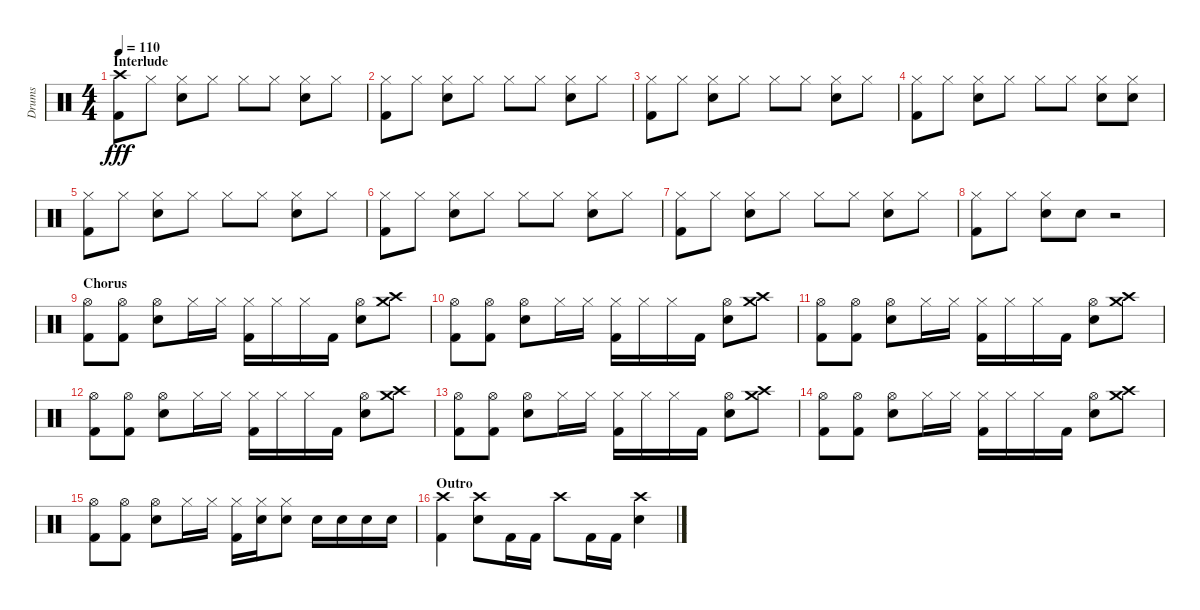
\track ("Drums" "Drums") {instrument percussion}
\staff {score}
\articulation defaults
\ts (4 4)
\section ("" "Interlude")
\tempo 110
\clef neutral
\ks c
("Crash high (hit)" "Kick (hit) 2").8{dy fff} "Hi-Hat (closed)".8 ("Hi-Hat (closed)" "Electric Snare (hit)").8 "Hi-Hat (closed)".8 "Hi-Hat (closed)".8 "Hi-Hat (closed)".8 ("Hi-Hat (closed)" "Electric Snare (hit)").8 "Hi-Hat (closed)".8 |
("Hi-Hat (closed)" "Kick (hit) 2").8 "Hi-Hat (closed)".8 ("Hi-Hat (closed)" "Electric Snare (hit)").8 "Hi-Hat (closed)".8 "Hi-Hat (closed)".8 "Hi-Hat (closed)".8 ("Hi-Hat (closed)" "Electric Snare (hit)").8 "Hi-Hat (closed)".8 |
("Hi-Hat (closed)" "Kick (hit) 2").8 "Hi-Hat (closed)".8 ("Hi-Hat (closed)" "Electric Snare (hit)").8 "Hi-Hat (closed)".8 "Hi-Hat (closed)".8 "Hi-Hat (closed)".8 ("Hi-Hat (closed)" "Electric Snare (hit)").8 "Hi-Hat (closed)".8 |
("Hi-Hat (closed)" "Kick (hit) 2").8 "Hi-Hat (closed)".8 ("Hi-Hat (closed)" "Electric Snare (hit)").8 "Hi-Hat (closed)".8 "Hi-Hat (closed)".8 "Hi-Hat (closed)".8 ("Hi-Hat (closed)" "Electric Snare (hit)").8 ("Hi-Hat (closed)" "Electric Snare (hit)").8 |
("Hi-Hat (closed)" "Kick (hit) 2").8 "Hi-Hat (closed)".8 ("Hi-Hat (closed)" "Electric Snare (hit)").8 "Hi-Hat (closed)".8 "Hi-Hat (closed)".8 "Hi-Hat (closed)".8 ("Hi-Hat (closed)" "Electric Snare (hit)").8 "Hi-Hat (closed)".8 |
("Hi-Hat (closed)" "Kick (hit) 2").8 "Hi-Hat (closed)".8 ("Hi-Hat (closed)" "Electric Snare (hit)").8 "Hi-Hat (closed)".8 "Hi-Hat (closed)".8 "Hi-Hat (closed)".8 ("Hi-Hat (closed)" "Electric Snare (hit)").8 "Hi-Hat (closed)".8 |
("Hi-Hat (closed)" "Kick (hit) 2").8 "Hi-Hat (closed)".8 ("Hi-Hat (closed)" "Electric Snare (hit)").8 "Hi-Hat (closed)".8 "Hi-Hat (closed)".8 "Hi-Hat (closed)".8 ("Hi-Hat (closed)" "Electric Snare (hit)").8 "Hi-Hat (closed)".8 |
("Hi-Hat (closed)" "Kick (hit) 2").8 "Hi-Hat (closed)".8 ("Hi-Hat (closed)" "Electric Snare (hit)").8 "Electric Snare (hit)".8 r.2 |
\section ("" "Chorus")
("Hi-Hat (open)" "Kick (hit) 2").8 ("Hi-Hat (open)" "Kick (hit) 2").8 ("Hi-Hat (open)" "Electric Snare (hit)").8 "Hi-Hat (closed)".16 "Hi-Hat (closed)".16 ("Hi-Hat (closed)" "Kick (hit) 2").16 "Hi-Hat (closed)".16 "Hi-Hat (closed)".16 "Kick (hit) 2".16 ("Hi-Hat (open)" "Electric Snare (hit)").8 ("Crash high (hit)" "Crash medium (hit)").8 |
("Hi-Hat (open)" "Kick (hit) 2").8 ("Hi-Hat (open)" "Kick (hit) 2").8 ("Hi-Hat (open)" "Electric Snare (hit)").8 "Hi-Hat (closed)".16 "Hi-Hat (closed)".16 ("Hi-Hat (closed)" "Kick (hit) 2").16 "Hi-Hat (closed)".16 "Hi-Hat (closed)".16 "Kick (hit) 2".16 ("Hi-Hat (open)" "Electric Snare (hit)").8 ("Crash high (hit)" "Crash medium (hit)").8 |
("Hi-Hat (open)" "Kick (hit) 2").8 ("Hi-Hat (open)" "Kick (hit) 2").8 ("Hi-Hat (open)" "Electric Snare (hit)").8 "Hi-Hat (closed)".16 "Hi-Hat (closed)".16 ("Hi-Hat (closed)" "Kick (hit) 2").16 "Hi-Hat (closed)".16 "Hi-Hat (closed)".16 "Kick (hit) 2".16 ("Hi-Hat (open)" "Electric Snare (hit)").8 ("Crash high (hit)" "Crash medium (hit)").8 |
("Hi-Hat (open)" "Kick (hit) 2").8 ("Hi-Hat (open)" "Kick (hit) 2").8 ("Hi-Hat (open)" "Electric Snare (hit)").8 "Hi-Hat (closed)".16 "Hi-Hat (closed)".16 ("Hi-Hat (closed)" "Kick (hit) 2").16 "Hi-Hat (closed)".16 "Hi-Hat (closed)".16 "Kick (hit) 2".16 ("Hi-Hat (open)" "Electric Snare (hit)").8 ("Crash high (hit)" "Crash medium (hit)").8 |
("Hi-Hat (open)" "Kick (hit) 2").8 ("Hi-Hat (open)" "Kick (hit) 2").8 ("Hi-Hat (open)" "Electric Snare (hit)").8 "Hi-Hat (closed)".16 "Hi-Hat (closed)".16 ("Hi-Hat (closed)" "Kick (hit) 2").16 "Hi-Hat (closed)".16 "Hi-Hat (closed)".16 "Kick (hit) 2".16 ("Hi-Hat (open)" "Electric Snare (hit)").8 ("Crash high (hit)" "Crash medium (hit)").8 |
("Hi-Hat (open)" "Kick (hit) 2").8 ("Hi-Hat (open)" "Kick (hit) 2").8 ("Hi-Hat (open)" "Electric Snare (hit)").8 "Hi-Hat (closed)".16 "Hi-Hat (closed)".16 ("Hi-Hat (closed)" "Kick (hit) 2").16 "Hi-Hat (closed)".16 "Hi-Hat (closed)".16 "Kick (hit) 2".16 ("Hi-Hat (open)" "Electric Snare (hit)").8 ("Crash high (hit)" "Crash medium (hit)").8 |
("Hi-Hat (open)" "Kick (hit) 2").8 ("Hi-Hat (open)" "Kick (hit) 2").8 ("Hi-Hat (open)" "Electric Snare (hit)").8 "Hi-Hat (closed)".16 "Hi-Hat (closed)".16 ("Hi-Hat (closed)" "Kick (hit) 2").16 ("Hi-Hat (closed)" "Electric Snare (hit)").16 ("Hi-Hat (closed)" "Electric Snare (hit)").8 "Electric Snare (hit)".16 "Electric Snare (hit)".16 "Electric Snare (hit)".16 "Electric Snare (hit)".16 |
\section ("" "Outro")
("Crash high (hit)" "Kick (hit) 2").4 ("Crash high (hit)" "Electric Snare (hit)").8 "Kick (hit) 2".16 "Kick (hit) 2".16 "Crash high (hit)".8 "Kick (hit) 2".16 "Kick (hit) 2".16 ("Crash high (hit)" "Electric Snare (hit)").4
